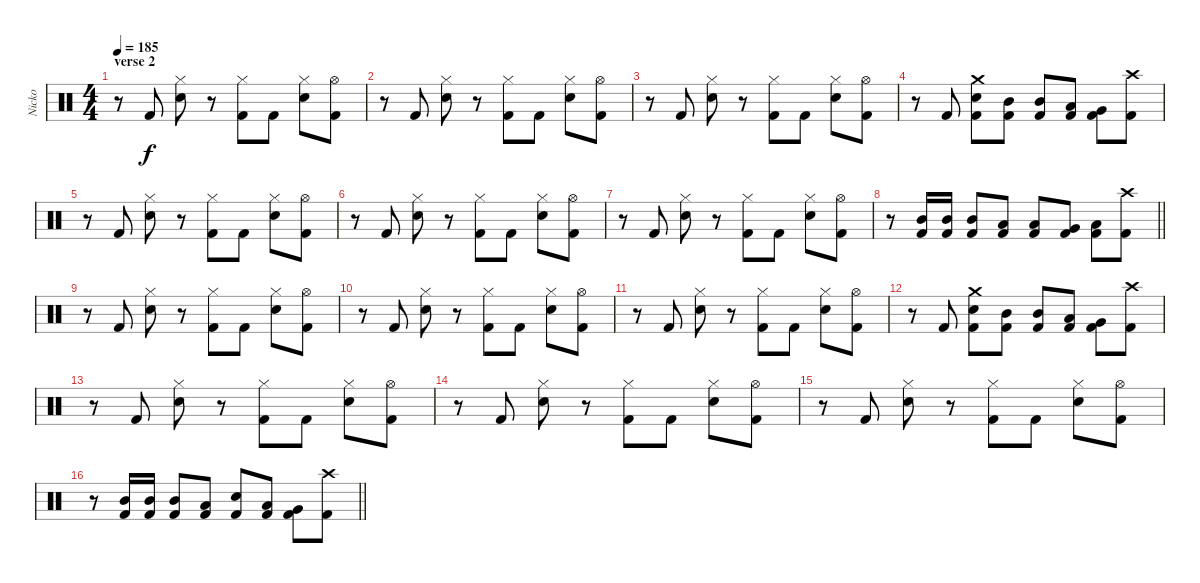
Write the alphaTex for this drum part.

\track ("Nicko" "Nicko") {instrument percussion}
\staff {score}
\articulation defaults
\ts (4 4)
\section ("" "verse 2")
\tempo 185
\clef neutral
\ks c
r.8{dy f} "Kick (hit) 2".8 ("Hi-Hat (closed)" "Snare (hit) 2").8 r.8 ("Hi-Hat (closed)" "Kick (hit) 2").8 "Kick (hit) 2".8 ("Hi-Hat (closed)" "Snare (hit) 2").8 ("Hi-Hat (open)" "Kick (hit) 2").8 |
r.8 "Kick (hit) 2".8 ("Hi-Hat (closed)" "Snare (hit) 2").8 r.8 ("Hi-Hat (closed)" "Kick (hit) 2").8 "Kick (hit) 2".8 ("Hi-Hat (closed)" "Snare (hit) 2").8 ("Hi-Hat (open)" "Kick (hit) 2").8 |
r.8 "Kick (hit) 2".8 ("Hi-Hat (closed)" "Snare (hit) 2").8 r.8 ("Hi-Hat (closed)" "Kick (hit) 2").8 "Kick (hit) 2".8 ("Hi-Hat (closed)" "Snare (hit) 2").8 ("Hi-Hat (open)" "Kick (hit) 2").8 |
r.8 "Kick (hit) 2".8 ("Crash medium (hit)" "Snare (hit) 2" "Kick (hit) 2").8 ("Mid Tom (hit)" "Kick (hit) 2").8 ("Mid Tom (hit)" "Kick (hit) 2").8 ("Low Tom (hit)" "Kick (hit) 2").8 ("Very Low Tom (hit)" "Kick (hit) 2").8 ("Crash high (hit)" "Kick (hit) 2").8 |
r.8 "Kick (hit) 2".8 ("Hi-Hat (closed)" "Snare (hit) 2").8 r.8 ("Hi-Hat (closed)" "Kick (hit) 2").8 "Kick (hit) 2".8 ("Hi-Hat (closed)" "Snare (hit) 2").8 ("Hi-Hat (open)" "Kick (hit) 2").8 |
r.8 "Kick (hit) 2".8 ("Hi-Hat (closed)" "Snare (hit) 2").8 r.8 ("Hi-Hat (closed)" "Kick (hit) 2").8 "Kick (hit) 2".8 ("Hi-Hat (closed)" "Snare (hit) 2").8 ("Hi-Hat (open)" "Kick (hit) 2").8 |
r.8 "Kick (hit) 2".8 ("Hi-Hat (closed)" "Snare (hit) 2").8 r.8 ("Hi-Hat (closed)" "Kick (hit) 2").8 "Kick (hit) 2".8 ("Hi-Hat (closed)" "Snare (hit) 2").8 ("Hi-Hat (open)" "Kick (hit) 2").8 |
\barLineRight lightlight
r.8 ("Mid Tom (hit)" "Kick (hit) 2").16 ("Mid Tom (hit)" "Kick (hit) 2").16 ("Mid Tom (hit)" "Kick (hit) 2").8 ("Low Tom (hit)" "Kick (hit) 2").8 ("Low Tom (hit)" "Kick (hit) 2").8 ("Very Low Tom (hit)" "Kick (hit) 2").8 ("Low Floor Tom (hit)" "Kick (hit) 2").8 ("Crash high (hit)" "Kick (hit) 2").8 |
r.8 "Kick (hit) 2".8 ("Hi-Hat (closed)" "Snare (hit) 2").8 r.8 ("Hi-Hat (closed)" "Kick (hit) 2").8 "Kick (hit) 2".8 ("Hi-Hat (closed)" "Snare (hit) 2").8 ("Hi-Hat (open)" "Kick (hit) 2").8 |
r.8 "Kick (hit) 2".8 ("Hi-Hat (closed)" "Snare (hit) 2").8 r.8 ("Hi-Hat (closed)" "Kick (hit) 2").8 "Kick (hit) 2".8 ("Hi-Hat (closed)" "Snare (hit) 2").8 ("Hi-Hat (open)" "Kick (hit) 2").8 |
r.8 "Kick (hit) 2".8 ("Hi-Hat (closed)" "Snare (hit) 2").8 r.8 ("Hi-Hat (closed)" "Kick (hit) 2").8 "Kick (hit) 2".8 ("Hi-Hat (closed)" "Snare (hit) 2").8 ("Hi-Hat (open)" "Kick (hit) 2").8 |
r.8 "Kick (hit) 2".8 ("Crash medium (hit)" "Snare (hit) 2" "Kick (hit) 2").8 ("Mid Tom (hit)" "Kick (hit) 2").8 ("Mid Tom (hit)" "Kick (hit) 2").8 ("Low Tom (hit)" "Kick (hit) 2").8 ("Very Low Tom (hit)" "Kick (hit) 2").8 ("Crash high (hit)" "Kick (hit) 2").8 |
r.8 "Kick (hit) 2".8 ("Hi-Hat (closed)" "Snare (hit) 2").8 r.8 ("Hi-Hat (closed)" "Kick (hit) 2").8 "Kick (hit) 2".8 ("Hi-Hat (closed)" "Snare (hit) 2").8 ("Hi-Hat (open)" "Kick (hit) 2").8 |
r.8 "Kick (hit) 2".8 ("Hi-Hat (closed)" "Snare (hit) 2").8 r.8 ("Hi-Hat (closed)" "Kick (hit) 2").8 "Kick (hit) 2".8 ("Hi-Hat (closed)" "Snare (hit) 2").8 ("Hi-Hat (open)" "Kick (hit) 2").8 |
r.8 "Kick (hit) 2".8 ("Hi-Hat (closed)" "Snare (hit) 2").8 r.8 ("Hi-Hat (closed)" "Kick (hit) 2").8 "Kick (hit) 2".8 ("Hi-Hat (closed)" "Snare (hit) 2").8 ("Hi-Hat (open)" "Kick (hit) 2").8 |
\barLineRight lightlight
r.8 ("Mid Tom (hit)" "Kick (hit) 2").16 ("Mid Tom (hit)" "Kick (hit) 2").16 ("Mid Tom (hit)" "Kick (hit) 2").8 ("Low Tom (hit)" "Kick (hit) 2").8 ("Snare (hit) 2" "Kick (hit) 2").8 ("Low Tom (hit)" "Kick (hit) 2").8 ("Very Low Tom (hit)" "Kick (hit) 2").8 ("Crash high (hit)" "Kick (hit) 2").8
